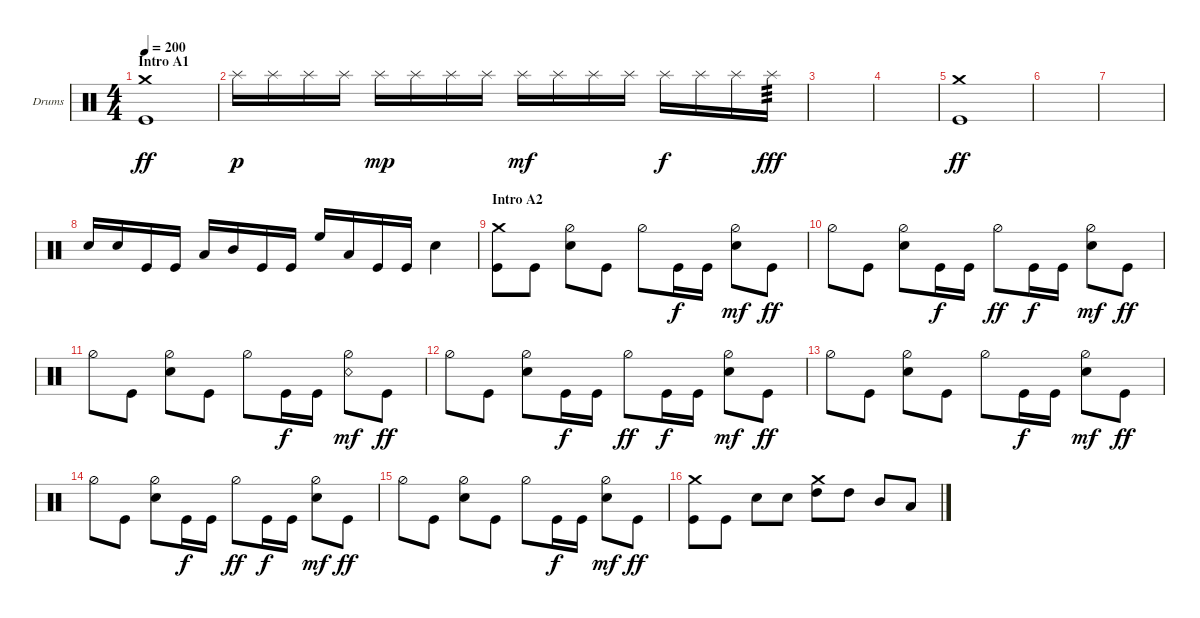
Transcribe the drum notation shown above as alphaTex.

\defaultSystemsLayout 4
\bracketExtendMode groupsimilarinstruments
\firstSystemTrackNameOrientation horizontal
\otherSystemsTrackNameOrientation horizontal
\track ("Drums" "Drums") {instrument percussion}
\staff {score}
\articulation defaults
\ts (4 4)
\section ("" "Intro A1")
\tempo 200
\clef neutral
\ks c
("Kick (hit)" "Crash medium (hit)").1{dy ff} |
"Splash (hit)".16{dy p} "Splash (hit)".16 "Splash (hit)".16 "Splash (hit)".16 "Splash (hit)".16{dy mp} "Splash (hit)".16 "Splash (hit)".16 "Splash (hit)".16 "Splash (hit)".16{dy mf} "Splash (hit)".16 "Splash (hit)".16 "Splash (hit)".16 "Splash (hit)".16{dy f} "Splash (hit)".16 "Splash (hit)".16 "Splash (hit)".16{tp 3 dy fff} |
|
|
("Kick (hit)" "Crash medium (hit)").1{dy ff} |
|
|
"Snare (hit) 2".16 "Snare (hit) 2".16 "Kick (hit)".16 "Kick (hit)".16 "Low Tom (hit)".16 "Mid Tom (hit)".16 "Kick (hit)".16 "Kick (hit)".16 "High Floor Tom (hit)".16 "Low Tom (hit)".16 "Kick (hit)".16 "Kick (hit)".16 "Snare (hit) 2".4 |
\section ("" "Intro A2")
("Kick (hit)" "Crash medium (hit)").8 "Kick (hit)".8 ("Snare (hit) 2" "Hi-Hat (half)").8 "Kick (hit)".8 "Hi-Hat (half)".8 "Kick (hit)".16{dy f} "Kick (hit)".16 ("Snare (hit) 2" "Hi-Hat (half)").8{dy mf} "Kick (hit)".8{dy ff} |
"Hi-Hat (half)".8 "Kick (hit)".8 ("Hi-Hat (half)" "Snare (hit) 2").8 "Kick (hit)".16{dy f} "Kick (hit)".16 "Hi-Hat (half)".8{dy ff} "Kick (hit)".16{dy f} "Kick (hit)".16 ("Snare (hit) 2" "Hi-Hat (half)").8{dy mf} "Kick (hit)".8{dy ff} |
"Hi-Hat (half)".8 "Kick (hit)".8 ("Snare (hit) 2" "Hi-Hat (half)").8 "Kick (hit)".8 "Hi-Hat (half)".8 "Kick (hit)".16{dy f} "Kick (hit)".16 ("Snare (rim shot)" "Hi-Hat (half)").8{dy mf} "Kick (hit)".8{dy ff} |
"Hi-Hat (half)".8 "Kick (hit)".8 ("Hi-Hat (half)" "Snare (hit) 2").8 "Kick (hit)".16{dy f} "Kick (hit)".16 "Hi-Hat (half)".8{dy ff} "Kick (hit)".16{dy f} "Kick (hit)".16 ("Snare (hit) 2" "Hi-Hat (half)").8{dy mf} "Kick (hit)".8{dy ff} |
"Hi-Hat (half)".8 "Kick (hit)".8 ("Snare (hit) 2" "Hi-Hat (half)").8 "Kick (hit)".8 "Hi-Hat (half)".8 "Kick (hit)".16{dy f} "Kick (hit)".16 ("Hi-Hat (half)" "Snare (hit) 2").8{dy mf} "Kick (hit)".8{dy ff} |
"Hi-Hat (half)".8 "Kick (hit)".8 ("Hi-Hat (half)" "Snare (hit) 2").8 "Kick (hit)".16{dy f} "Kick (hit)".16 "Hi-Hat (half)".8{dy ff} "Kick (hit)".16{dy f} "Kick (hit)".16 ("Snare (hit) 2" "Hi-Hat (half)").8{dy mf} "Kick (hit)".8{dy ff} |
"Hi-Hat (half)".8 "Kick (hit)".8 ("Snare (hit) 2" "Hi-Hat (half)").8 "Kick (hit)".8 "Hi-Hat (half)".8 "Kick (hit)".16{dy f} "Kick (hit)".16 ("Hi-Hat (half)" "Snare (hit) 2").8{dy mf} "Kick (hit)".8{dy ff} |
("Kick (hit)" "Crash medium (hit)").8 "Kick (hit)".8 "Snare (hit) 2".8 "Snare (hit) 2".8 ("High Tom (hit)" "Crash medium (hit)").8 "High Tom (hit)".8 "Mid Tom (hit)".8 "Low Tom (hit)".8
